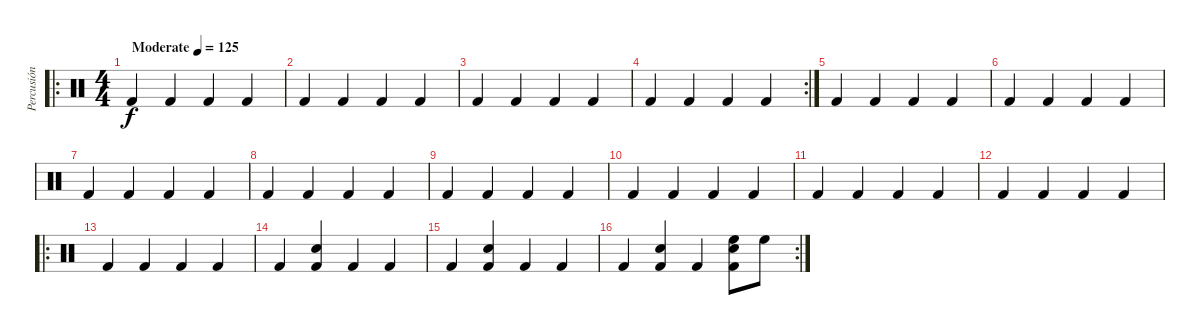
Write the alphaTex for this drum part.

\track ("Percusión" "Percusión") {instrument percussion}
\staff {score}
\articulation defaults
\ro
\ts (4 4)
\tempo (125 "Moderate")
\clef neutral
\ks c "Kick (hit) 2".4{dy f} "Kick (hit) 2".4 "Kick (hit) 2".4 "Kick (hit) 2".4
|
"Kick (hit) 2".4 "Kick (hit) 2".4 "Kick (hit) 2".4 "Kick (hit) 2".4 |
"Kick (hit) 2".4 "Kick (hit) 2".4 "Kick (hit) 2".4 "Kick (hit) 2".4 |
\rc 2 "Kick (hit) 2".4 "Kick (hit) 2".4 "Kick (hit) 2".4 "Kick (hit) 2".4
|
"Kick (hit) 2".4 "Kick (hit) 2".4 "Kick (hit) 2".4 "Kick (hit) 2".4 |
"Kick (hit) 2".4 "Kick (hit) 2".4 "Kick (hit) 2".4 "Kick (hit) 2".4 |
"Kick (hit) 2".4 "Kick (hit) 2".4 "Kick (hit) 2".4 "Kick (hit) 2".4 |
"Kick (hit) 2".4 "Kick (hit) 2".4 "Kick (hit) 2".4 "Kick (hit) 2".4 |
"Kick (hit) 2".4 "Kick (hit) 2".4 "Kick (hit) 2".4 "Kick (hit) 2".4 |
"Kick (hit) 2".4 "Kick (hit) 2".4 "Kick (hit) 2".4 "Kick (hit) 2".4 |
"Kick (hit) 2".4 "Kick (hit) 2".4 "Kick (hit) 2".4 "Kick (hit) 2".4 |
"Kick (hit) 2".4 "Kick (hit) 2".4 "Kick (hit) 2".4 "Kick (hit) 2".4 |
\ro "Kick (hit) 2".4 "Kick (hit) 2".4 "Kick (hit) 2".4 "Kick (hit) 2".4
|
"Kick (hit) 2".4 ("Snare (hit) 2" "Kick (hit) 2").4 "Kick (hit) 2".4 "Kick (hit) 2".4 |
"Kick (hit) 2".4 ("Snare (hit) 2" "Kick (hit) 2").4 "Kick (hit) 2".4 "Kick (hit) 2".4 |
\rc 2 "Kick (hit) 2".4
("Snare (hit) 2" "Kick (hit) 2").4 "Kick (hit) 2".4 ("High Floor Tom (hit)" "Snare (hit) 2" "Kick (hit) 2").8 "High Floor Tom (hit)".8
